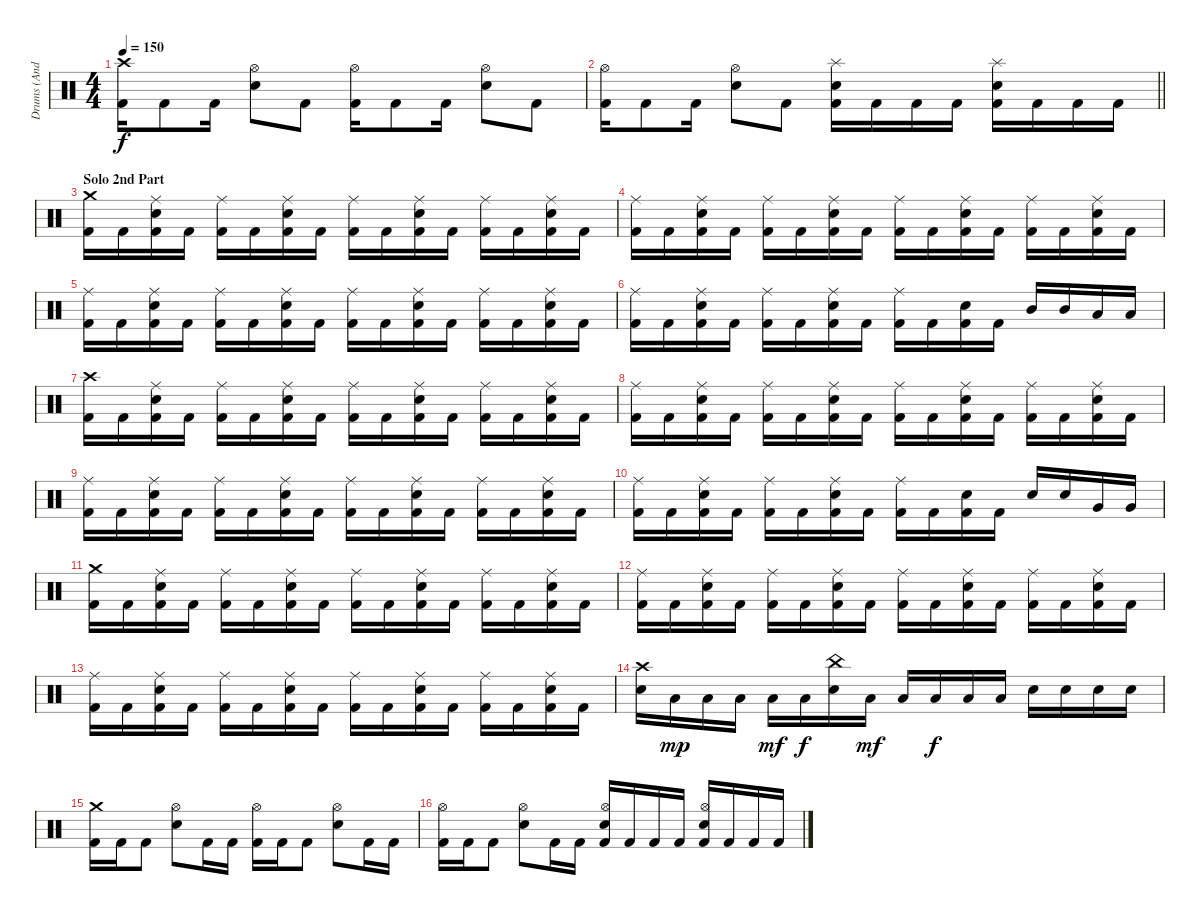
\track ("Drums (Andy C)" "Drums (And") {instrument percussion}
\staff
\articulation defaults
\ts (4 4)
\tempo 150
\clef neutral
\ks c
("Crash high (hit)" "Kick (hit) 2").16{dy f} "Kick (hit) 2".8 "Kick (hit) 2".16 ("Hi-Hat (open)" "Electric Snare (hit)").8 "Kick (hit) 2".8 ("Hi-Hat (open)" "Kick (hit) 2").16 "Kick (hit) 2".8 "Kick (hit) 2".16 ("Hi-Hat (open)" "Electric Snare (hit)").8 "Kick (hit) 2".8 |
\barLineRight lightlight
("Hi-Hat (open)" "Kick (hit) 2").16 "Kick (hit) 2".8 "Kick (hit) 2".16 ("Hi-Hat (open)" "Electric Snare (hit)").8 "Kick (hit) 2".8 ("Splash (hit)" "Kick (hit) 2" "Electric Snare (hit)").16 "Kick (hit) 2".16 "Kick (hit) 2".16 "Kick (hit) 2".16 ("Splash (hit)" "Kick (hit) 2" "Electric Snare (hit)").16 "Kick (hit) 2".16 "Kick (hit) 2".16 "Kick (hit) 2".16 |
\section ("" "Solo 2nd Part")
("Crash medium (hit)" "Kick (hit) 2").16 "Kick (hit) 2".16 ("Ride (middle)" "Kick (hit) 2" "Electric Snare (hit)").16 "Kick (hit) 2".16 ("Ride (middle)" "Kick (hit) 2").16 "Kick (hit) 2".16 ("Ride (middle)" "Kick (hit) 2" "Electric Snare (hit)").16 "Kick (hit) 2".16 ("Ride (middle)" "Kick (hit) 2").16 "Kick (hit) 2".16 ("Ride (middle)" "Kick (hit) 2" "Electric Snare (hit)").16 "Kick (hit) 2".16 ("Ride (middle)" "Kick (hit) 2").16 "Kick (hit) 2".16 ("Ride (middle)" "Kick (hit) 2" "Electric Snare (hit)").16 "Kick (hit) 2".16 |
("Ride (middle)" "Kick (hit) 2").16 "Kick (hit) 2".16 ("Ride (middle)" "Kick (hit) 2" "Electric Snare (hit)").16 "Kick (hit) 2".16 ("Ride (middle)" "Kick (hit) 2").16 "Kick (hit) 2".16 ("Ride (middle)" "Kick (hit) 2" "Electric Snare (hit)").16 "Kick (hit) 2".16 ("Ride (middle)" "Kick (hit) 2").16 "Kick (hit) 2".16 ("Ride (middle)" "Kick (hit) 2" "Electric Snare (hit)").16 "Kick (hit) 2".16 ("Ride (middle)" "Kick (hit) 2").16 "Kick (hit) 2".16 ("Ride (middle)" "Kick (hit) 2" "Electric Snare (hit)").16 "Kick (hit) 2".16 |
("Ride (middle)" "Kick (hit) 2").16 "Kick (hit) 2".16 ("Ride (middle)" "Kick (hit) 2" "Electric Snare (hit)").16 "Kick (hit) 2".16 ("Ride (middle)" "Kick (hit) 2").16 "Kick (hit) 2".16 ("Ride (middle)" "Kick (hit) 2" "Electric Snare (hit)").16 "Kick (hit) 2".16 ("Ride (middle)" "Kick (hit) 2").16 "Kick (hit) 2".16 ("Ride (middle)" "Kick (hit) 2" "Electric Snare (hit)").16 "Kick (hit) 2".16 ("Ride (middle)" "Kick (hit) 2").16 "Kick (hit) 2".16 ("Ride (middle)" "Kick (hit) 2" "Electric Snare (hit)").16 "Kick (hit) 2".16 |
("Ride (middle)" "Kick (hit) 2").16 "Kick (hit) 2".16 ("Ride (middle)" "Kick (hit) 2" "Electric Snare (hit)").16 "Kick (hit) 2".16 ("Ride (middle)" "Kick (hit) 2").16 "Kick (hit) 2".16 ("Ride (middle)" "Kick (hit) 2" "Electric Snare (hit)").16 "Kick (hit) 2".16 ("Ride (middle)" "Kick (hit) 2").16 "Kick (hit) 2".16 ("Kick (hit) 2" "Electric Snare (hit)").16 "Kick (hit) 2".16 "Mid Tom (hit)".16 "Mid Tom (hit)".16 "Low Tom (hit)".16 "Low Tom (hit)".16 |
("Crash high (hit)" "Kick (hit) 2").16 "Kick (hit) 2".16 ("Ride (middle)" "Kick (hit) 2" "Electric Snare (hit)").16 "Kick (hit) 2".16 ("Ride (middle)" "Kick (hit) 2").16 "Kick (hit) 2".16 ("Ride (middle)" "Kick (hit) 2" "Electric Snare (hit)").16 "Kick (hit) 2".16 ("Ride (middle)" "Kick (hit) 2").16 "Kick (hit) 2".16 ("Ride (middle)" "Kick (hit) 2" "Electric Snare (hit)").16 "Kick (hit) 2".16 ("Ride (middle)" "Kick (hit) 2").16 "Kick (hit) 2".16 ("Ride (middle)" "Kick (hit) 2" "Electric Snare (hit)").16 "Kick (hit) 2".16 |
("Ride (middle)" "Kick (hit) 2").16 "Kick (hit) 2".16 ("Ride (middle)" "Kick (hit) 2" "Electric Snare (hit)").16 "Kick (hit) 2".16 ("Ride (middle)" "Kick (hit) 2").16 "Kick (hit) 2".16 ("Ride (middle)" "Kick (hit) 2" "Electric Snare (hit)").16 "Kick (hit) 2".16 ("Ride (middle)" "Kick (hit) 2").16 "Kick (hit) 2".16 ("Ride (middle)" "Kick (hit) 2" "Electric Snare (hit)").16 "Kick (hit) 2".16 ("Ride (middle)" "Kick (hit) 2").16 "Kick (hit) 2".16 ("Ride (middle)" "Kick (hit) 2" "Electric Snare (hit)").16 "Kick (hit) 2".16 |
("Ride (middle)" "Kick (hit) 2").16 "Kick (hit) 2".16 ("Ride (middle)" "Kick (hit) 2" "Electric Snare (hit)").16 "Kick (hit) 2".16 ("Ride (middle)" "Kick (hit) 2").16 "Kick (hit) 2".16 ("Ride (middle)" "Kick (hit) 2" "Electric Snare (hit)").16 "Kick (hit) 2".16 ("Ride (middle)" "Kick (hit) 2").16 "Kick (hit) 2".16 ("Ride (middle)" "Kick (hit) 2" "Electric Snare (hit)").16 "Kick (hit) 2".16 ("Ride (middle)" "Kick (hit) 2").16 "Kick (hit) 2".16 ("Ride (middle)" "Kick (hit) 2" "Electric Snare (hit)").16 "Kick (hit) 2".16 |
("Ride (middle)" "Kick (hit) 2").16 "Kick (hit) 2".16 ("Ride (middle)" "Kick (hit) 2" "Electric Snare (hit)").16 "Kick (hit) 2".16 ("Ride (middle)" "Kick (hit) 2").16 "Kick (hit) 2".16 ("Ride (middle)" "Kick (hit) 2" "Electric Snare (hit)").16 "Kick (hit) 2".16 ("Ride (middle)" "Kick (hit) 2").16 "Kick (hit) 2".16 ("Kick (hit) 2" "Electric Snare (hit)").16 "Kick (hit) 2".16 "Electric Snare (hit)".16 "Electric Snare (hit)".16 "Very Low Tom (hit)".16 "Very Low Tom (hit)".16 |
("Crash medium (hit)" "Kick (hit) 2").16 "Kick (hit) 2".16 ("Ride (middle)" "Kick (hit) 2" "Electric Snare (hit)").16 "Kick (hit) 2".16 ("Ride (middle)" "Kick (hit) 2").16 "Kick (hit) 2".16 ("Ride (middle)" "Kick (hit) 2" "Electric Snare (hit)").16 "Kick (hit) 2".16 ("Ride (middle)" "Kick (hit) 2").16 "Kick (hit) 2".16 ("Ride (middle)" "Kick (hit) 2" "Electric Snare (hit)").16 "Kick (hit) 2".16 ("Ride (middle)" "Kick (hit) 2").16 "Kick (hit) 2".16 ("Ride (middle)" "Kick (hit) 2" "Electric Snare (hit)").16 "Kick (hit) 2".16 |
("Ride (middle)" "Kick (hit) 2").16 "Kick (hit) 2".16 ("Ride (middle)" "Kick (hit) 2" "Electric Snare (hit)").16 "Kick (hit) 2".16 ("Ride (middle)" "Kick (hit) 2").16 "Kick (hit) 2".16 ("Ride (middle)" "Kick (hit) 2" "Electric Snare (hit)").16 "Kick (hit) 2".16 ("Ride (middle)" "Kick (hit) 2").16 "Kick (hit) 2".16 ("Ride (middle)" "Kick (hit) 2" "Electric Snare (hit)").16 "Kick (hit) 2".16 ("Ride (middle)" "Kick (hit) 2").16 "Kick (hit) 2".16 ("Ride (middle)" "Kick (hit) 2" "Electric Snare (hit)").16 "Kick (hit) 2".16 |
("Ride (middle)" "Kick (hit) 2").16 "Kick (hit) 2".16 ("Ride (middle)" "Kick (hit) 2" "Electric Snare (hit)").16 "Kick (hit) 2".16 ("Ride (middle)" "Kick (hit) 2").16 "Kick (hit) 2".16 ("Ride (middle)" "Kick (hit) 2" "Electric Snare (hit)").16 "Kick (hit) 2".16 ("Ride (middle)" "Kick (hit) 2").16 "Kick (hit) 2".16 ("Ride (middle)" "Kick (hit) 2" "Electric Snare (hit)").16 "Kick (hit) 2".16 ("Ride (middle)" "Kick (hit) 2").16 "Kick (hit) 2".16 ("Ride (middle)" "Kick (hit) 2" "Electric Snare (hit)").16 "Kick (hit) 2".16 |
("Crash high (hit)" "Electric Snare (hit)").16 "Low Tom (hit)".16{dy mp} "Low Tom (hit)".16 "Low Tom (hit)".16 "Low Tom (hit)".16{dy mf} "Low Tom (hit)".16{dy f} ("China (hit)" "Electric Snare (hit)").16 "Low Tom (hit)".16{dy mf} "Low Tom (hit)".16 "Low Tom (hit)".16{dy f} "Low Tom (hit)".16 "Low Tom (hit)".16 "Electric Snare (hit)".16 "Electric Snare (hit)".16 "Electric Snare (hit)".16 "Electric Snare (hit)".16 |
("Crash medium (hit)" "Kick (hit) 2").16 "Kick (hit) 2".16 "Kick (hit) 2".8 ("Hi-Hat (open)" "Electric Snare (hit)").8 "Kick (hit) 2".16 "Kick (hit) 2".16 ("Hi-Hat (open)" "Kick (hit) 2").16 "Kick (hit) 2".16 "Kick (hit) 2".8 ("Hi-Hat (open)" "Electric Snare (hit)").8 "Kick (hit) 2".16 "Kick (hit) 2".16 |
("Hi-Hat (open)" "Kick (hit) 2").16 "Kick (hit) 2".16 "Kick (hit) 2".8 ("Hi-Hat (open)" "Electric Snare (hit)").8 "Kick (hit) 2".16 "Kick (hit) 2".16 ("Hi-Hat (open)" "Kick (hit) 2" "Electric Snare (hit)").16 "Kick (hit) 2".16 "Kick (hit) 2".16 "Kick (hit) 2".16 ("Hi-Hat (open)" "Kick (hit) 2" "Electric Snare (hit)").16 "Kick (hit) 2".16 "Kick (hit) 2".16 "Kick (hit) 2".16
